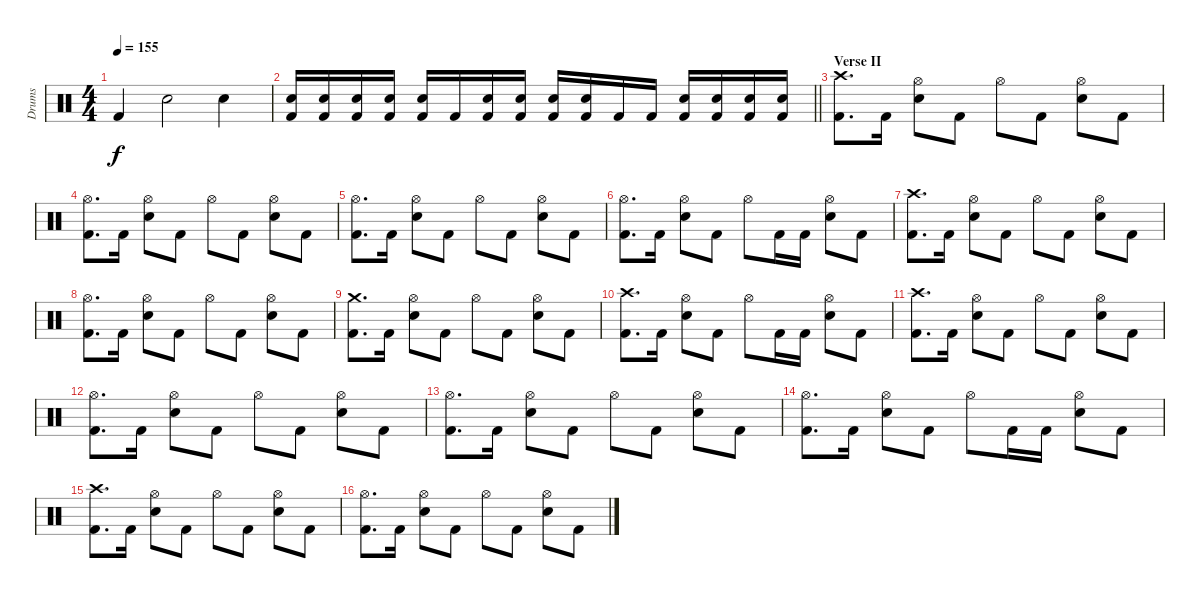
\track ("Drums" "Drums") {instrument percussion}
\staff {score}
\articulation defaults
\ts (4 4)
\tempo 155
\clef neutral
\ks c "Kick (hit) 2".4{dy f} "Snare (hit) 2".2 "Snare (hit) 2".4
|
\barLineRight lightlight
("Snare (hit) 2" "Kick (hit) 2").16 ("Snare (hit) 2" "Kick (hit) 2").16 ("Snare (hit) 2" "Kick (hit) 2").16 ("Snare (hit) 2" "Kick (hit) 2").16 ("Snare (hit) 2" "Kick (hit) 2").16 "Kick (hit) 2".16 ("Snare (hit) 2" "Kick (hit) 2").16 ("Snare (hit) 2" "Kick (hit) 2").16 ("Snare (hit) 2" "Kick (hit) 2").16 ("Snare (hit) 2" "Kick (hit) 2").16 "Kick (hit) 2".16 "Kick (hit) 2".16 ("Snare (hit) 2" "Kick (hit) 2").16 ("Snare (hit) 2" "Kick (hit) 2").16 ("Snare (hit) 2" "Kick (hit) 2").16 ("Snare (hit) 2" "Kick (hit) 2").16 |
\section ("" "Verse II")
("Crash high (hit)" "Kick (hit) 2").8{d} "Kick (hit) 2".16 ("Hi-Hat (open)" "Snare (hit) 2").8 "Kick (hit) 2".8 "Hi-Hat (open)".8 "Kick (hit) 2".8 ("Hi-Hat (open)" "Snare (hit) 2").8 "Kick (hit) 2".8 |
("Hi-Hat (open)" "Kick (hit) 2").8{d} "Kick (hit) 2".16 ("Hi-Hat (open)" "Snare (hit) 2").8 "Kick (hit) 2".8 "Hi-Hat (open)".8 "Kick (hit) 2".8 ("Hi-Hat (open)" "Snare (hit) 2").8 "Kick (hit) 2".8 |
("Hi-Hat (open)" "Kick (hit) 2").8{d} "Kick (hit) 2".16 ("Hi-Hat (open)" "Snare (hit) 2").8 "Kick (hit) 2".8 "Hi-Hat (open)".8 "Kick (hit) 2".8 ("Hi-Hat (open)" "Snare (hit) 2").8 "Kick (hit) 2".8 |
("Hi-Hat (open)" "Kick (hit) 2").8{d} "Kick (hit) 2".16 ("Hi-Hat (open)" "Snare (hit) 2").8 "Kick (hit) 2".8 "Hi-Hat (open)".8 "Kick (hit) 2".16 "Kick (hit) 2".16 ("Hi-Hat (open)" "Snare (hit) 2").8 "Kick (hit) 2".8 |
("Crash high (hit)" "Kick (hit) 2").8{d} "Kick (hit) 2".16 ("Hi-Hat (open)" "Snare (hit) 2").8 "Kick (hit) 2".8 "Hi-Hat (open)".8 "Kick (hit) 2".8 ("Hi-Hat (open)" "Snare (hit) 2").8 "Kick (hit) 2".8 |
("Hi-Hat (open)" "Kick (hit) 2").8{d} "Kick (hit) 2".16 ("Hi-Hat (open)" "Snare (hit) 2").8 "Kick (hit) 2".8 "Hi-Hat (open)".8 "Kick (hit) 2".8 ("Hi-Hat (open)" "Snare (hit) 2").8 "Kick (hit) 2".8 |
("Crash medium (hit)" "Kick (hit) 2").8{d} "Kick (hit) 2".16 ("Hi-Hat (open)" "Snare (hit) 2").8 "Kick (hit) 2".8 "Hi-Hat (open)".8 "Kick (hit) 2".8 ("Hi-Hat (open)" "Snare (hit) 2").8 "Kick (hit) 2".8 |
("Crash high (hit)" "Kick (hit) 2").8{d} "Kick (hit) 2".16 ("Hi-Hat (open)" "Snare (hit) 2").8 "Kick (hit) 2".8 "Hi-Hat (open)".8 "Kick (hit) 2".16 "Kick (hit) 2".16 ("Hi-Hat (open)" "Snare (hit) 2").8 "Kick (hit) 2".8 |
("Crash high (hit)" "Kick (hit) 2").8{d} "Kick (hit) 2".16 ("Hi-Hat (open)" "Snare (hit) 2").8 "Kick (hit) 2".8 "Hi-Hat (open)".8 "Kick (hit) 2".8 ("Hi-Hat (open)" "Snare (hit) 2").8 "Kick (hit) 2".8 |
("Hi-Hat (open)" "Kick (hit) 2").8{d} "Kick (hit) 2".16 ("Hi-Hat (open)" "Snare (hit) 2").8 "Kick (hit) 2".8 "Hi-Hat (open)".8 "Kick (hit) 2".8 ("Hi-Hat (open)" "Snare (hit) 2").8 "Kick (hit) 2".8 |
("Hi-Hat (open)" "Kick (hit) 2").8{d} "Kick (hit) 2".16 ("Hi-Hat (open)" "Snare (hit) 2").8 "Kick (hit) 2".8 "Hi-Hat (open)".8 "Kick (hit) 2".8 ("Hi-Hat (open)" "Snare (hit) 2").8 "Kick (hit) 2".8 |
("Hi-Hat (open)" "Kick (hit) 2").8{d} "Kick (hit) 2".16 ("Hi-Hat (open)" "Snare (hit) 2").8 "Kick (hit) 2".8 "Hi-Hat (open)".8 "Kick (hit) 2".16 "Kick (hit) 2".16 ("Hi-Hat (open)" "Snare (hit) 2").8 "Kick (hit) 2".8 |
("Crash high (hit)" "Kick (hit) 2").8{d} "Kick (hit) 2".16 ("Hi-Hat (open)" "Snare (hit) 2").8 "Kick (hit) 2".8 "Hi-Hat (open)".8 "Kick (hit) 2".8 ("Hi-Hat (open)" "Snare (hit) 2").8 "Kick (hit) 2".8 |
("Hi-Hat (open)" "Kick (hit) 2").8{d} "Kick (hit) 2".16 ("Hi-Hat (open)" "Snare (hit) 2").8 "Kick (hit) 2".8 "Hi-Hat (open)".8 "Kick (hit) 2".8 ("Hi-Hat (open)" "Snare (hit) 2").8 "Kick (hit) 2".8
